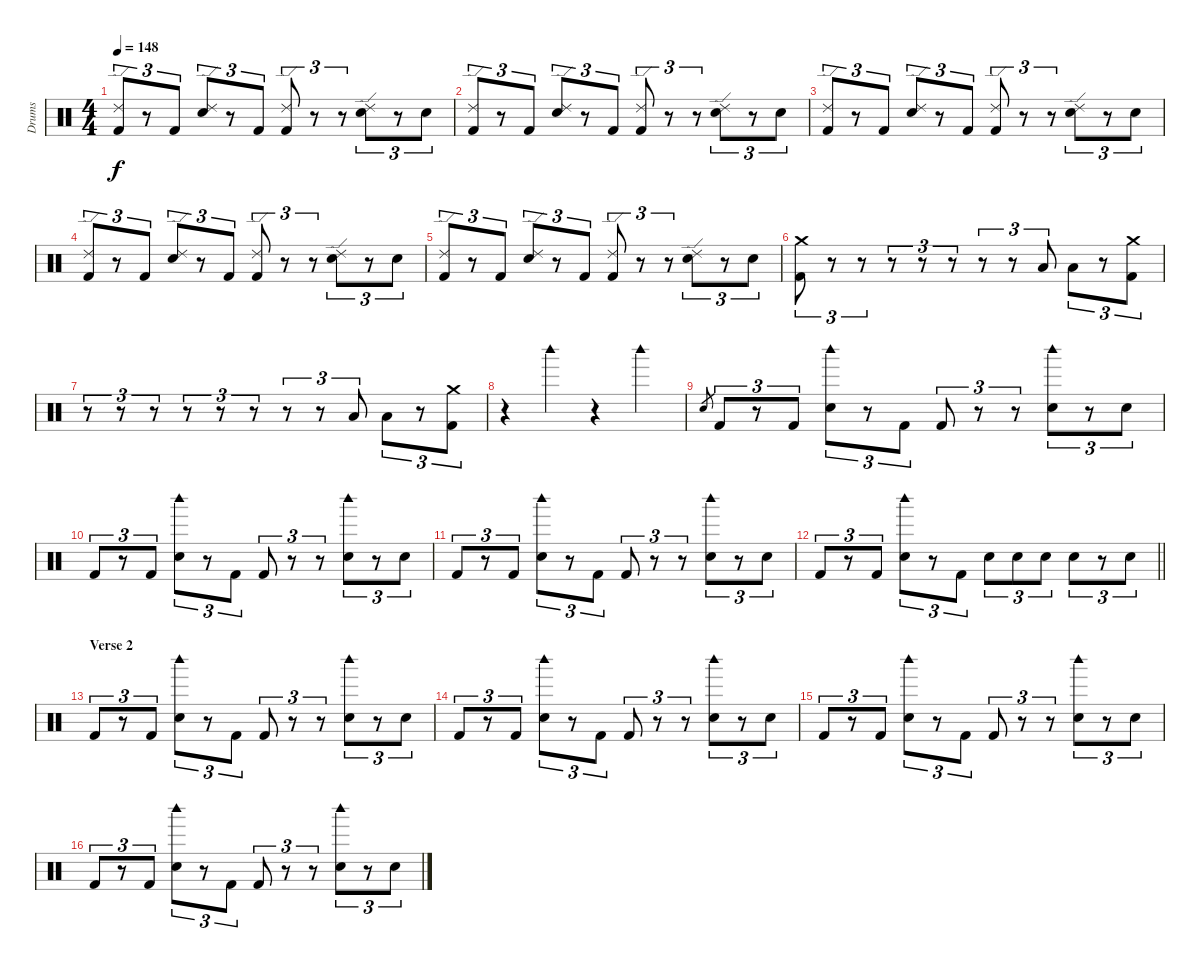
\track ("Drums" "Drums") {instrument percussion}
\staff {score}
\articulation defaults
\ts (4 4)
\tempo 148
\clef neutral
\ks c
("Ride (edge) 2" "Kick (hit) 2").8{tu (3 2) dy f} r.8{tu (3 2)} "Kick (hit) 2".8{tu (3 2)} ("Ride (edge) 2" "Snare (hit) 2").8{tu (3 2)} r.8{tu (3 2)} "Kick (hit) 2".8{tu (3 2)} ("Ride (edge) 2" "Kick (hit) 2").8{tu (3 2)} r.8{tu (3 2)} r.8{tu (3 2)} ("Ride (edge) 2" "Snare (hit) 2").8{tu (3 2)} r.8{tu (3 2)} "Snare (hit) 2".8{tu (3 2)} |
("Ride (edge) 2" "Kick (hit) 2").8{tu (3 2)} r.8{tu (3 2)} "Kick (hit) 2".8{tu (3 2)} ("Ride (edge) 2" "Snare (hit) 2").8{tu (3 2)} r.8{tu (3 2)} "Kick (hit) 2".8{tu (3 2)} ("Ride (edge) 2" "Kick (hit) 2").8{tu (3 2)} r.8{tu (3 2)} r.8{tu (3 2)} ("Ride (edge) 2" "Snare (hit) 2").8{tu (3 2)} r.8{tu (3 2)} "Snare (hit) 2".8{tu (3 2)} |
("Ride (edge) 2" "Kick (hit) 2").8{tu (3 2)} r.8{tu (3 2)} "Kick (hit) 2".8{tu (3 2)} ("Ride (edge) 2" "Snare (hit) 2").8{tu (3 2)} r.8{tu (3 2)} "Kick (hit) 2".8{tu (3 2)} ("Ride (edge) 2" "Kick (hit) 2").8{tu (3 2)} r.8{tu (3 2)} r.8{tu (3 2)} ("Ride (edge) 2" "Snare (hit) 2").8{tu (3 2)} r.8{tu (3 2)} "Snare (hit) 2".8{tu (3 2)} |
("Ride (edge) 2" "Kick (hit) 2").8{tu (3 2)} r.8{tu (3 2)} "Kick (hit) 2".8{tu (3 2)} ("Ride (edge) 2" "Snare (hit) 2").8{tu (3 2)} r.8{tu (3 2)} "Kick (hit) 2".8{tu (3 2)} ("Ride (edge) 2" "Kick (hit) 2").8{tu (3 2)} r.8{tu (3 2)} r.8{tu (3 2)} ("Ride (edge) 2" "Snare (hit) 2").8{tu (3 2)} r.8{tu (3 2)} "Snare (hit) 2".8{tu (3 2)} |
("Ride (edge) 2" "Kick (hit) 2").8{tu (3 2)} r.8{tu (3 2)} "Kick (hit) 2".8{tu (3 2)} ("Ride (edge) 2" "Snare (hit) 2").8{tu (3 2)} r.8{tu (3 2)} "Kick (hit) 2".8{tu (3 2)} ("Ride (edge) 2" "Kick (hit) 2").8{tu (3 2)} r.8{tu (3 2)} r.8{tu (3 2)} ("Ride (edge) 2" "Snare (hit) 2").8{tu (3 2)} r.8{tu (3 2)} "Snare (hit) 2".8{tu (3 2)} |
("Crash medium (hit)" "Kick (hit) 2").8{tu (3 2)} r.8{tu (3 2)} r.8{tu (3 2)} r.8{tu (3 2)} r.8{tu (3 2)} r.8{tu (3 2)} r.8{tu (3 2)} r.8{tu (3 2)} "Low Tom (hit)".8{tu (3 2)} "Low Tom (hit)".8{tu (3 2)} r.8{tu (3 2)} ("Crash medium (hit)" "Kick (hit) 2").8{tu (3 2)} |
r.8{tu (3 2)} r.8{tu (3 2)} r.8{tu (3 2)} r.8{tu (3 2)} r.8{tu (3 2)} r.8{tu (3 2)} r.8{tu (3 2)} r.8{tu (3 2)} "Low Tom (hit)".8{tu (3 2)} "Low Tom (hit)".8{tu (3 2)} r.8{tu (3 2)} ("Crash medium (hit)" "Kick (hit) 2").8{tu (3 2)} |
r.4 "Woodblock high (hit)".4 r.4 "Woodblock high (hit)".4 |
"Snare (hit) 2".8{gr} "Kick (hit) 2".8{tu (3 2)} r.8{tu (3 2)} "Kick (hit) 2".8{tu (3 2)} ("Woodblock high (hit)" "Snare (hit) 2").8{tu (3 2)} r.8{tu (3 2)} "Kick (hit) 2".8{tu (3 2)} "Kick (hit) 2".8{tu (3 2)} r.8{tu (3 2)} r.8{tu (3 2)} ("Woodblock high (hit)" "Snare (hit) 2").8{tu (3 2)} r.8{tu (3 2)} "Snare (hit) 2".8{tu (3 2)} |
"Kick (hit) 2".8{tu (3 2)} r.8{tu (3 2)} "Kick (hit) 2".8{tu (3 2)} ("Woodblock high (hit)" "Snare (hit) 2").8{tu (3 2)} r.8{tu (3 2)} "Kick (hit) 2".8{tu (3 2)} "Kick (hit) 2".8{tu (3 2)} r.8{tu (3 2)} r.8{tu (3 2)} ("Woodblock high (hit)" "Snare (hit) 2").8{tu (3 2)} r.8{tu (3 2)} "Snare (hit) 2".8{tu (3 2)} |
"Kick (hit) 2".8{tu (3 2)} r.8{tu (3 2)} "Kick (hit) 2".8{tu (3 2)} ("Woodblock high (hit)" "Snare (hit) 2").8{tu (3 2)} r.8{tu (3 2)} "Kick (hit) 2".8{tu (3 2)} "Kick (hit) 2".8{tu (3 2)} r.8{tu (3 2)} r.8{tu (3 2)} ("Woodblock high (hit)" "Snare (hit) 2").8{tu (3 2)} r.8{tu (3 2)} "Snare (hit) 2".8{tu (3 2)} |
\barLineRight lightlight "Kick (hit) 2".8{tu (3 2)}
r.8{tu (3 2)} "Kick (hit) 2".8{tu (3 2)} ("Woodblock high (hit)" "Snare (hit) 2").8{tu (3 2)} r.8{tu (3 2)} "Kick (hit) 2".8{tu (3 2)} "Snare (hit) 2".8{tu (3 2)} "Snare (hit) 2".8{tu (3 2)} "Snare (hit) 2".8{tu (3 2)} "Snare (hit) 2".8{tu (3 2)} r.8{tu (3 2)} "Snare (hit) 2".8{tu (3 2)} |
\section ("" "Verse 2")
"Kick (hit) 2".8{tu (3 2)} r.8{tu (3 2)} "Kick (hit) 2".8{tu (3 2)} ("Woodblock high (hit)" "Snare (hit) 2").8{tu (3 2)} r.8{tu (3 2)} "Kick (hit) 2".8{tu (3 2)} "Kick (hit) 2".8{tu (3 2)} r.8{tu (3 2)} r.8{tu (3 2)} ("Woodblock high (hit)" "Snare (hit) 2").8{tu (3 2)} r.8{tu (3 2)} "Snare (hit) 2".8{tu (3 2)} |
"Kick (hit) 2".8{tu (3 2)} r.8{tu (3 2)} "Kick (hit) 2".8{tu (3 2)} ("Woodblock high (hit)" "Snare (hit) 2").8{tu (3 2)} r.8{tu (3 2)} "Kick (hit) 2".8{tu (3 2)} "Kick (hit) 2".8{tu (3 2)} r.8{tu (3 2)} r.8{tu (3 2)} ("Woodblock high (hit)" "Snare (hit) 2").8{tu (3 2)} r.8{tu (3 2)} "Snare (hit) 2".8{tu (3 2)} |
"Kick (hit) 2".8{tu (3 2)} r.8{tu (3 2)} "Kick (hit) 2".8{tu (3 2)} ("Woodblock high (hit)" "Snare (hit) 2").8{tu (3 2)} r.8{tu (3 2)} "Kick (hit) 2".8{tu (3 2)} "Kick (hit) 2".8{tu (3 2)} r.8{tu (3 2)} r.8{tu (3 2)} ("Woodblock high (hit)" "Snare (hit) 2").8{tu (3 2)} r.8{tu (3 2)} "Snare (hit) 2".8{tu (3 2)} |
"Kick (hit) 2".8{tu (3 2)} r.8{tu (3 2)} "Kick (hit) 2".8{tu (3 2)} ("Woodblock high (hit)" "Snare (hit) 2").8{tu (3 2)} r.8{tu (3 2)} "Kick (hit) 2".8{tu (3 2)} "Kick (hit) 2".8{tu (3 2)} r.8{tu (3 2)} r.8{tu (3 2)} ("Woodblock high (hit)" "Snare (hit) 2").8{tu (3 2)} r.8{tu (3 2)} "Snare (hit) 2".8{tu (3 2)}
